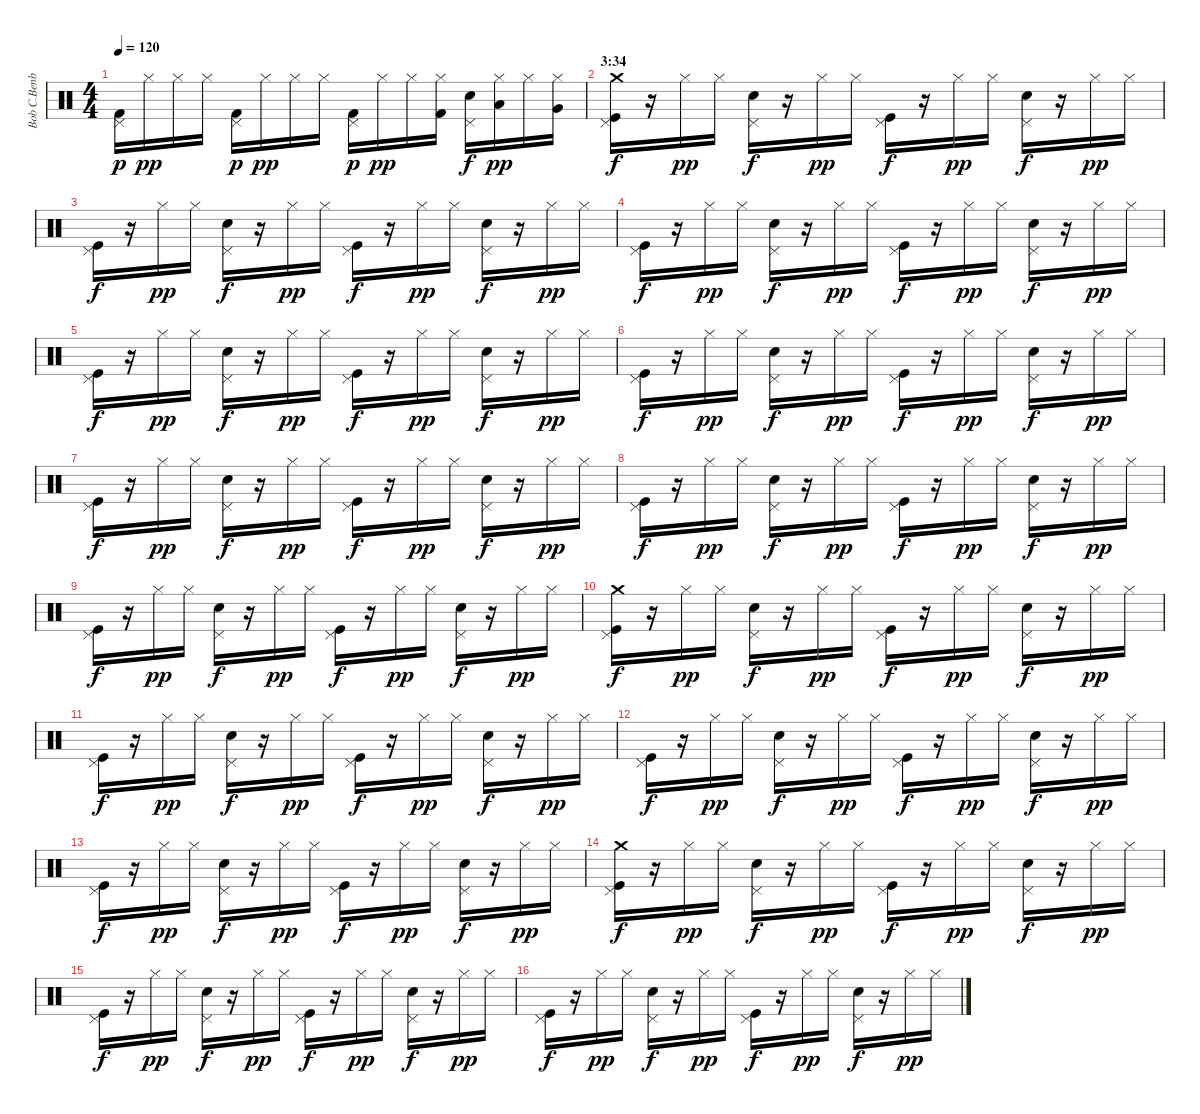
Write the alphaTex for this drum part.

\track ("Bob C.Benberg (drums)" "Bob C.Benb") {instrument percussion}
\staff {score}
\articulation defaults
\ts (4 4)
\tempo 120
\clef neutral
\ks c
("Pedal Hi-Hat (hit)" "Kick (hit) 2").16{dy p} "Hi-Hat (closed)".16{dy pp} "Hi-Hat (closed)".16 "Hi-Hat (closed)".16 ("Pedal Hi-Hat (hit)" "Kick (hit) 2").16{dy p} "Hi-Hat (closed)".16{dy pp} "Hi-Hat (closed)".16 "Hi-Hat (closed)".16 ("Pedal Hi-Hat (hit)" "Kick (hit) 2").16{dy p} "Hi-Hat (closed)".16{dy pp} "Hi-Hat (closed)".16 ("Hi-Hat (closed)" "Kick (hit) 2").16 ("Pedal Hi-Hat (hit)" "Snare (hit) 2").16{dy f} ("Hi-Hat (closed)" "Low Tom (hit)").16{dy pp} "Hi-Hat (closed)".16 ("Hi-Hat (closed)" "Very Low Tom (hit)").16 |
\section ("" "3:34")
("Pedal Hi-Hat (hit)" "Kick (hit)" "Crash medium (hit)").16{dy f} r.16 "Hi-Hat (closed)".16{dy pp} "Hi-Hat (closed)".16 ("Pedal Hi-Hat (hit)" "Snare (hit) 2").16{dy f} r.16 "Hi-Hat (closed)".16{dy pp} "Hi-Hat (closed)".16 ("Pedal Hi-Hat (hit)" "Kick (hit)").16{dy f} r.16 "Hi-Hat (closed)".16{dy pp} "Hi-Hat (closed)".16 ("Pedal Hi-Hat (hit)" "Snare (hit) 2").16{dy f} r.16 "Hi-Hat (closed)".16{dy pp} "Hi-Hat (closed)".16 |
("Pedal Hi-Hat (hit)" "Kick (hit)").16{dy f} r.16 "Hi-Hat (closed)".16{dy pp} "Hi-Hat (closed)".16 ("Pedal Hi-Hat (hit)" "Snare (hit) 2").16{dy f} r.16 "Hi-Hat (closed)".16{dy pp} "Hi-Hat (closed)".16 ("Pedal Hi-Hat (hit)" "Kick (hit)").16{dy f} r.16 "Hi-Hat (closed)".16{dy pp} "Hi-Hat (closed)".16 ("Pedal Hi-Hat (hit)" "Snare (hit) 2").16{dy f} r.16 "Hi-Hat (closed)".16{dy pp} "Hi-Hat (closed)".16 |
("Pedal Hi-Hat (hit)" "Kick (hit)").16{dy f} r.16 "Hi-Hat (closed)".16{dy pp} "Hi-Hat (closed)".16 ("Pedal Hi-Hat (hit)" "Snare (hit) 2").16{dy f} r.16 "Hi-Hat (closed)".16{dy pp} "Hi-Hat (closed)".16 ("Pedal Hi-Hat (hit)" "Kick (hit)").16{dy f} r.16 "Hi-Hat (closed)".16{dy pp} "Hi-Hat (closed)".16 ("Pedal Hi-Hat (hit)" "Snare (hit) 2").16{dy f} r.16 "Hi-Hat (closed)".16{dy pp} "Hi-Hat (closed)".16 |
("Pedal Hi-Hat (hit)" "Kick (hit)").16{dy f} r.16 "Hi-Hat (closed)".16{dy pp} "Hi-Hat (closed)".16 ("Pedal Hi-Hat (hit)" "Snare (hit) 2").16{dy f} r.16 "Hi-Hat (closed)".16{dy pp} "Hi-Hat (closed)".16 ("Pedal Hi-Hat (hit)" "Kick (hit)").16{dy f} r.16 "Hi-Hat (closed)".16{dy pp} "Hi-Hat (closed)".16 ("Pedal Hi-Hat (hit)" "Snare (hit) 2").16{dy f} r.16 "Hi-Hat (closed)".16{dy pp} "Hi-Hat (closed)".16 |
("Pedal Hi-Hat (hit)" "Kick (hit)").16{dy f} r.16 "Hi-Hat (closed)".16{dy pp} "Hi-Hat (closed)".16 ("Pedal Hi-Hat (hit)" "Snare (hit) 2").16{dy f} r.16 "Hi-Hat (closed)".16{dy pp} "Hi-Hat (closed)".16 ("Pedal Hi-Hat (hit)" "Kick (hit)").16{dy f} r.16 "Hi-Hat (closed)".16{dy pp} "Hi-Hat (closed)".16 ("Pedal Hi-Hat (hit)" "Snare (hit) 2").16{dy f} r.16 "Hi-Hat (closed)".16{dy pp} "Hi-Hat (closed)".16 |
("Pedal Hi-Hat (hit)" "Kick (hit)").16{dy f} r.16 "Hi-Hat (closed)".16{dy pp} "Hi-Hat (closed)".16 ("Pedal Hi-Hat (hit)" "Snare (hit) 2").16{dy f} r.16 "Hi-Hat (closed)".16{dy pp} "Hi-Hat (closed)".16 ("Pedal Hi-Hat (hit)" "Kick (hit)").16{dy f} r.16 "Hi-Hat (closed)".16{dy pp} "Hi-Hat (closed)".16 ("Pedal Hi-Hat (hit)" "Snare (hit) 2").16{dy f} r.16 "Hi-Hat (closed)".16{dy pp} "Hi-Hat (closed)".16 |
("Pedal Hi-Hat (hit)" "Kick (hit)").16{dy f} r.16 "Hi-Hat (closed)".16{dy pp} "Hi-Hat (closed)".16 ("Pedal Hi-Hat (hit)" "Snare (hit) 2").16{dy f} r.16 "Hi-Hat (closed)".16{dy pp} "Hi-Hat (closed)".16 ("Pedal Hi-Hat (hit)" "Kick (hit)").16{dy f} r.16 "Hi-Hat (closed)".16{dy pp} "Hi-Hat (closed)".16 ("Pedal Hi-Hat (hit)" "Snare (hit) 2").16{dy f} r.16 "Hi-Hat (closed)".16{dy pp} "Hi-Hat (closed)".16 |
("Pedal Hi-Hat (hit)" "Kick (hit)").16{dy f} r.16 "Hi-Hat (closed)".16{dy pp} "Hi-Hat (closed)".16 ("Pedal Hi-Hat (hit)" "Snare (hit) 2").16{dy f} r.16 "Hi-Hat (closed)".16{dy pp} "Hi-Hat (closed)".16 ("Pedal Hi-Hat (hit)" "Kick (hit)").16{dy f} r.16 "Hi-Hat (closed)".16{dy pp} "Hi-Hat (closed)".16 ("Pedal Hi-Hat (hit)" "Snare (hit) 2").16{dy f} r.16 "Hi-Hat (closed)".16{dy pp} "Hi-Hat (closed)".16 |
("Pedal Hi-Hat (hit)" "Kick (hit)" "Crash medium (hit)").16{dy f} r.16 "Hi-Hat (closed)".16{dy pp} "Hi-Hat (closed)".16 ("Pedal Hi-Hat (hit)" "Snare (hit) 2").16{dy f} r.16 "Hi-Hat (closed)".16{dy pp} "Hi-Hat (closed)".16 ("Pedal Hi-Hat (hit)" "Kick (hit)").16{dy f} r.16 "Hi-Hat (closed)".16{dy pp} "Hi-Hat (closed)".16 ("Pedal Hi-Hat (hit)" "Snare (hit) 2").16{dy f} r.16 "Hi-Hat (closed)".16{dy pp} "Hi-Hat (closed)".16 |
("Pedal Hi-Hat (hit)" "Kick (hit)").16{dy f} r.16 "Hi-Hat (closed)".16{dy pp} "Hi-Hat (closed)".16 ("Pedal Hi-Hat (hit)" "Snare (hit) 2").16{dy f} r.16 "Hi-Hat (closed)".16{dy pp} "Hi-Hat (closed)".16 ("Pedal Hi-Hat (hit)" "Kick (hit)").16{dy f} r.16 "Hi-Hat (closed)".16{dy pp} "Hi-Hat (closed)".16 ("Pedal Hi-Hat (hit)" "Snare (hit) 2").16{dy f} r.16 "Hi-Hat (closed)".16{dy pp} "Hi-Hat (closed)".16 |
("Pedal Hi-Hat (hit)" "Kick (hit)").16{dy f} r.16 "Hi-Hat (closed)".16{dy pp} "Hi-Hat (closed)".16 ("Pedal Hi-Hat (hit)" "Snare (hit) 2").16{dy f} r.16 "Hi-Hat (closed)".16{dy pp} "Hi-Hat (closed)".16 ("Pedal Hi-Hat (hit)" "Kick (hit)").16{dy f} r.16 "Hi-Hat (closed)".16{dy pp} "Hi-Hat (closed)".16 ("Pedal Hi-Hat (hit)" "Snare (hit) 2").16{dy f} r.16 "Hi-Hat (closed)".16{dy pp} "Hi-Hat (closed)".16 |
("Pedal Hi-Hat (hit)" "Kick (hit)").16{dy f} r.16 "Hi-Hat (closed)".16{dy pp} "Hi-Hat (closed)".16 ("Pedal Hi-Hat (hit)" "Snare (hit) 2").16{dy f} r.16 "Hi-Hat (closed)".16{dy pp} "Hi-Hat (closed)".16 ("Pedal Hi-Hat (hit)" "Kick (hit)").16{dy f} r.16 "Hi-Hat (closed)".16{dy pp} "Hi-Hat (closed)".16 ("Pedal Hi-Hat (hit)" "Snare (hit) 2").16{dy f} r.16 "Hi-Hat (closed)".16{dy pp} "Hi-Hat (closed)".16 |
("Pedal Hi-Hat (hit)" "Kick (hit)" "Crash medium (hit)").16{dy f} r.16 "Hi-Hat (closed)".16{dy pp} "Hi-Hat (closed)".16 ("Pedal Hi-Hat (hit)" "Snare (hit) 2").16{dy f} r.16 "Hi-Hat (closed)".16{dy pp} "Hi-Hat (closed)".16 ("Pedal Hi-Hat (hit)" "Kick (hit)").16{dy f} r.16 "Hi-Hat (closed)".16{dy pp} "Hi-Hat (closed)".16 ("Pedal Hi-Hat (hit)" "Snare (hit) 2").16{dy f} r.16 "Hi-Hat (closed)".16{dy pp} "Hi-Hat (closed)".16 |
("Pedal Hi-Hat (hit)" "Kick (hit)").16{dy f} r.16 "Hi-Hat (closed)".16{dy pp} "Hi-Hat (closed)".16 ("Pedal Hi-Hat (hit)" "Snare (hit) 2").16{dy f} r.16 "Hi-Hat (closed)".16{dy pp} "Hi-Hat (closed)".16 ("Pedal Hi-Hat (hit)" "Kick (hit)").16{dy f} r.16 "Hi-Hat (closed)".16{dy pp} "Hi-Hat (closed)".16 ("Pedal Hi-Hat (hit)" "Snare (hit) 2").16{dy f} r.16 "Hi-Hat (closed)".16{dy pp} "Hi-Hat (closed)".16 |
("Pedal Hi-Hat (hit)" "Kick (hit)").16{dy f} r.16 "Hi-Hat (closed)".16{dy pp} "Hi-Hat (closed)".16 ("Pedal Hi-Hat (hit)" "Snare (hit) 2").16{dy f} r.16 "Hi-Hat (closed)".16{dy pp} "Hi-Hat (closed)".16 ("Pedal Hi-Hat (hit)" "Kick (hit)").16{dy f} r.16 "Hi-Hat (closed)".16{dy pp} "Hi-Hat (closed)".16 ("Pedal Hi-Hat (hit)" "Snare (hit) 2").16{dy f} r.16 "Hi-Hat (closed)".16{dy pp} "Hi-Hat (closed)".16
